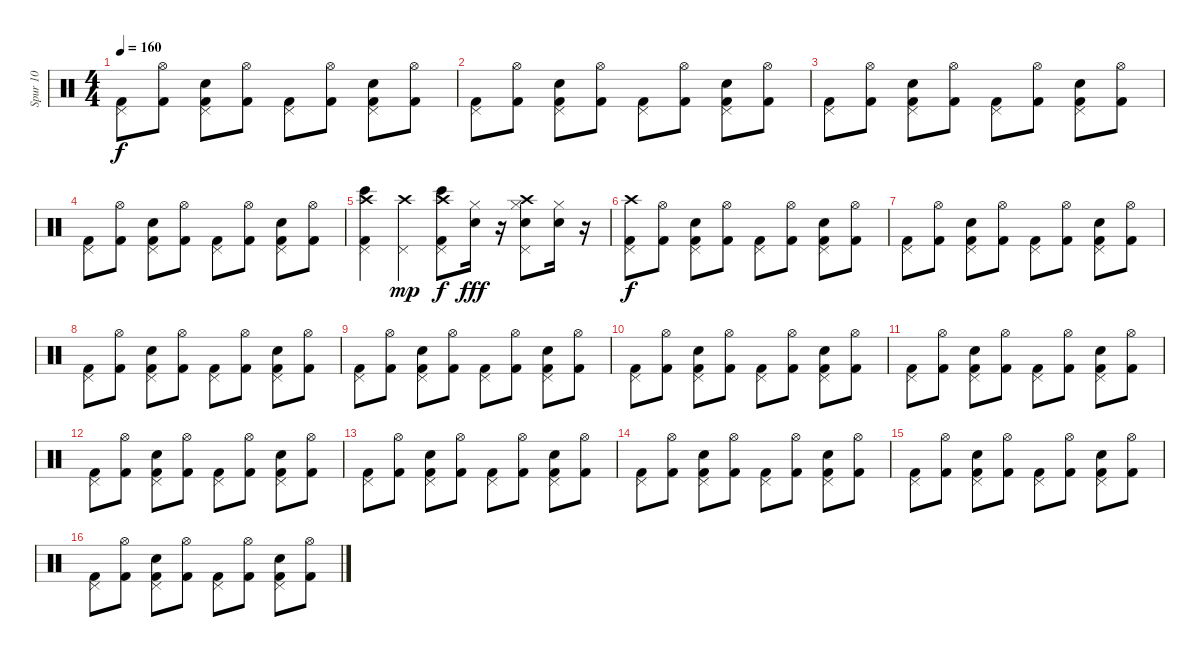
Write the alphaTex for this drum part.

\track ("Spur 10" "Spur 10") {instrument percussion}
\staff {score}
\articulation defaults
\ts (4 4)
\tempo 160
\clef neutral
\ks c
("Pedal Hi-Hat (hit)" "Kick (hit) 2").8{dy f} ("Hi-Hat (open)" "Kick (hit) 2").8 ("Snare (hit) 2" "Kick (hit) 2" "Pedal Hi-Hat (hit)").8 ("Hi-Hat (open)" "Kick (hit) 2").8 ("Pedal Hi-Hat (hit)" "Kick (hit) 2").8 ("Hi-Hat (open)" "Kick (hit) 2").8 ("Snare (hit) 2" "Pedal Hi-Hat (hit)" "Kick (hit) 2").8 ("Kick (hit) 2" "Hi-Hat (open)").8 |
("Kick (hit) 2" "Pedal Hi-Hat (hit)").8 ("Kick (hit) 2" "Hi-Hat (open)").8 ("Pedal Hi-Hat (hit)" "Snare (hit) 2" "Kick (hit) 2").8 ("Kick (hit) 2" "Hi-Hat (open)").8 ("Kick (hit) 2" "Pedal Hi-Hat (hit)").8 ("Hi-Hat (open)" "Kick (hit) 2").8 ("Kick (hit) 2" "Pedal Hi-Hat (hit)" "Snare (hit) 2").8 ("Kick (hit) 2" "Hi-Hat (open)").8 |
("Pedal Hi-Hat (hit)" "Kick (hit) 2").8 ("Hi-Hat (open)" "Kick (hit) 2").8 ("Pedal Hi-Hat (hit)" "Snare (hit) 2" "Kick (hit) 2").8 ("Kick (hit) 2" "Hi-Hat (open)").8 ("Pedal Hi-Hat (hit)" "Kick (hit) 2").8 ("Hi-Hat (open)" "Kick (hit) 2").8 ("Snare (hit) 2" "Kick (hit) 2" "Pedal Hi-Hat (hit)").8 ("Kick (hit) 2" "Hi-Hat (open)").8 |
("Pedal Hi-Hat (hit)" "Kick (hit) 2").8 ("Kick (hit) 2" "Hi-Hat (open)").8 ("Snare (hit) 2" "Pedal Hi-Hat (hit)" "Kick (hit) 2").8 ("Kick (hit) 2" "Hi-Hat (open)").8 ("Pedal Hi-Hat (hit)" "Kick (hit) 2").8 ("Kick (hit) 2" "Hi-Hat (open)").8 ("Snare (hit) 2" "Kick (hit) 2" "Pedal Hi-Hat (hit)").8 ("Kick (hit) 2" "Hi-Hat (open)").8 |
("Bongo High (hit)" "Kick (hit) 2" "Pedal Hi-Hat (hit)" "Crash high (hit)").4 ("Crash high (hit)" "Pedal Hi-Hat (hit)").4{dy mp} ("Bongo High (hit)" "Pedal Hi-Hat (hit)" "Crash high (hit)" "Kick (hit) 2").8{dy f} ("Hand Clap (hit)" "Hi-Hat (closed)").16{dy fff} r.16 ("Crash high (hit)" "Pedal Hi-Hat (hit)" "Hi-Hat (closed)" "Hand Clap (hit)").8 ("Hi-Hat (closed)" "Hand Clap (hit)").16 r.16 |
("Pedal Hi-Hat (hit)" "Kick (hit) 2" "Crash high (hit)").8{dy f} ("Hi-Hat (open)" "Kick (hit) 2").8 ("Snare (hit) 2" "Pedal Hi-Hat (hit)" "Kick (hit) 2").8 ("Kick (hit) 2" "Hi-Hat (open)").8 ("Pedal Hi-Hat (hit)" "Kick (hit) 2").8 ("Kick (hit) 2" "Hi-Hat (open)").8 ("Snare (hit) 2" "Kick (hit) 2" "Pedal Hi-Hat (hit)").8 ("Hi-Hat (open)" "Kick (hit) 2").8 |
("Pedal Hi-Hat (hit)" "Kick (hit) 2").8 ("Kick (hit) 2" "Hi-Hat (open)").8 ("Snare (hit) 2" "Kick (hit) 2" "Pedal Hi-Hat (hit)").8 ("Hi-Hat (open)" "Kick (hit) 2").8 ("Kick (hit) 2" "Pedal Hi-Hat (hit)").8 ("Kick (hit) 2" "Hi-Hat (open)").8 ("Kick (hit) 2" "Snare (hit) 2" "Pedal Hi-Hat (hit)").8 ("Kick (hit) 2" "Hi-Hat (open)").8 |
("Pedal Hi-Hat (hit)" "Kick (hit) 2").8 ("Hi-Hat (open)" "Kick (hit) 2").8 ("Pedal Hi-Hat (hit)" "Snare (hit) 2" "Kick (hit) 2").8 ("Kick (hit) 2" "Hi-Hat (open)").8 ("Pedal Hi-Hat (hit)" "Kick (hit) 2").8 ("Hi-Hat (open)" "Kick (hit) 2").8 ("Pedal Hi-Hat (hit)" "Kick (hit) 2" "Snare (hit) 2").8 ("Kick (hit) 2" "Hi-Hat (open)").8 |
("Kick (hit) 2" "Pedal Hi-Hat (hit)").8 ("Kick (hit) 2" "Hi-Hat (open)").8 ("Pedal Hi-Hat (hit)" "Kick (hit) 2" "Snare (hit) 2").8 ("Hi-Hat (open)" "Kick (hit) 2").8 ("Pedal Hi-Hat (hit)" "Kick (hit) 2").8 ("Kick (hit) 2" "Hi-Hat (open)").8 ("Pedal Hi-Hat (hit)" "Snare (hit) 2" "Kick (hit) 2").8 ("Kick (hit) 2" "Hi-Hat (open)").8 |
("Pedal Hi-Hat (hit)" "Kick (hit) 2").8 ("Kick (hit) 2" "Hi-Hat (open)").8 ("Kick (hit) 2" "Snare (hit) 2" "Pedal Hi-Hat (hit)").8 ("Hi-Hat (open)" "Kick (hit) 2").8 ("Kick (hit) 2" "Pedal Hi-Hat (hit)").8 ("Hi-Hat (open)" "Kick (hit) 2").8 ("Snare (hit) 2" "Kick (hit) 2" "Pedal Hi-Hat (hit)").8 ("Hi-Hat (open)" "Kick (hit) 2").8 |
("Kick (hit) 2" "Pedal Hi-Hat (hit)").8 ("Hi-Hat (open)" "Kick (hit) 2").8 ("Snare (hit) 2" "Kick (hit) 2" "Pedal Hi-Hat (hit)").8 ("Kick (hit) 2" "Hi-Hat (open)").8 ("Pedal Hi-Hat (hit)" "Kick (hit) 2").8 ("Kick (hit) 2" "Hi-Hat (open)").8 ("Pedal Hi-Hat (hit)" "Kick (hit) 2" "Snare (hit) 2").8 ("Kick (hit) 2" "Hi-Hat (open)").8 |
("Kick (hit) 2" "Pedal Hi-Hat (hit)").8 ("Kick (hit) 2" "Hi-Hat (open)").8 ("Pedal Hi-Hat (hit)" "Snare (hit) 2" "Kick (hit) 2").8 ("Hi-Hat (open)" "Kick (hit) 2").8 ("Kick (hit) 2" "Pedal Hi-Hat (hit)").8 ("Kick (hit) 2" "Hi-Hat (open)").8 ("Kick (hit) 2" "Snare (hit) 2" "Pedal Hi-Hat (hit)").8 ("Kick (hit) 2" "Hi-Hat (open)").8 |
("Pedal Hi-Hat (hit)" "Kick (hit) 2").8 ("Hi-Hat (open)" "Kick (hit) 2").8 ("Snare (hit) 2" "Kick (hit) 2" "Pedal Hi-Hat (hit)").8 ("Hi-Hat (open)" "Kick (hit) 2").8 ("Pedal Hi-Hat (hit)" "Kick (hit) 2").8 ("Hi-Hat (open)" "Kick (hit) 2").8 ("Kick (hit) 2" "Snare (hit) 2" "Pedal Hi-Hat (hit)").8 ("Hi-Hat (open)" "Kick (hit) 2").8 |
("Pedal Hi-Hat (hit)" "Kick (hit) 2").8 ("Hi-Hat (open)" "Kick (hit) 2").8 ("Pedal Hi-Hat (hit)" "Kick (hit) 2" "Snare (hit) 2").8 ("Kick (hit) 2" "Hi-Hat (open)").8 ("Pedal Hi-Hat (hit)" "Kick (hit) 2").8 ("Hi-Hat (open)" "Kick (hit) 2").8 ("Snare (hit) 2" "Pedal Hi-Hat (hit)" "Kick (hit) 2").8 ("Kick (hit) 2" "Hi-Hat (open)").8 |
("Kick (hit) 2" "Pedal Hi-Hat (hit)").8 ("Hi-Hat (open)" "Kick (hit) 2").8 ("Pedal Hi-Hat (hit)" "Snare (hit) 2" "Kick (hit) 2").8 ("Hi-Hat (open)" "Kick (hit) 2").8 ("Kick (hit) 2" "Pedal Hi-Hat (hit)").8 ("Hi-Hat (open)" "Kick (hit) 2").8 ("Pedal Hi-Hat (hit)" "Snare (hit) 2" "Kick (hit) 2").8 ("Kick (hit) 2" "Hi-Hat (open)").8 |
("Pedal Hi-Hat (hit)" "Kick (hit) 2").8 ("Hi-Hat (open)" "Kick (hit) 2").8 ("Snare (hit) 2" "Kick (hit) 2" "Pedal Hi-Hat (hit)").8 ("Hi-Hat (open)" "Kick (hit) 2").8 ("Pedal Hi-Hat (hit)" "Kick (hit) 2").8 ("Hi-Hat (open)" "Kick (hit) 2").8 ("Kick (hit) 2" "Snare (hit) 2" "Pedal Hi-Hat (hit)").8 ("Kick (hit) 2" "Hi-Hat (open)").8
